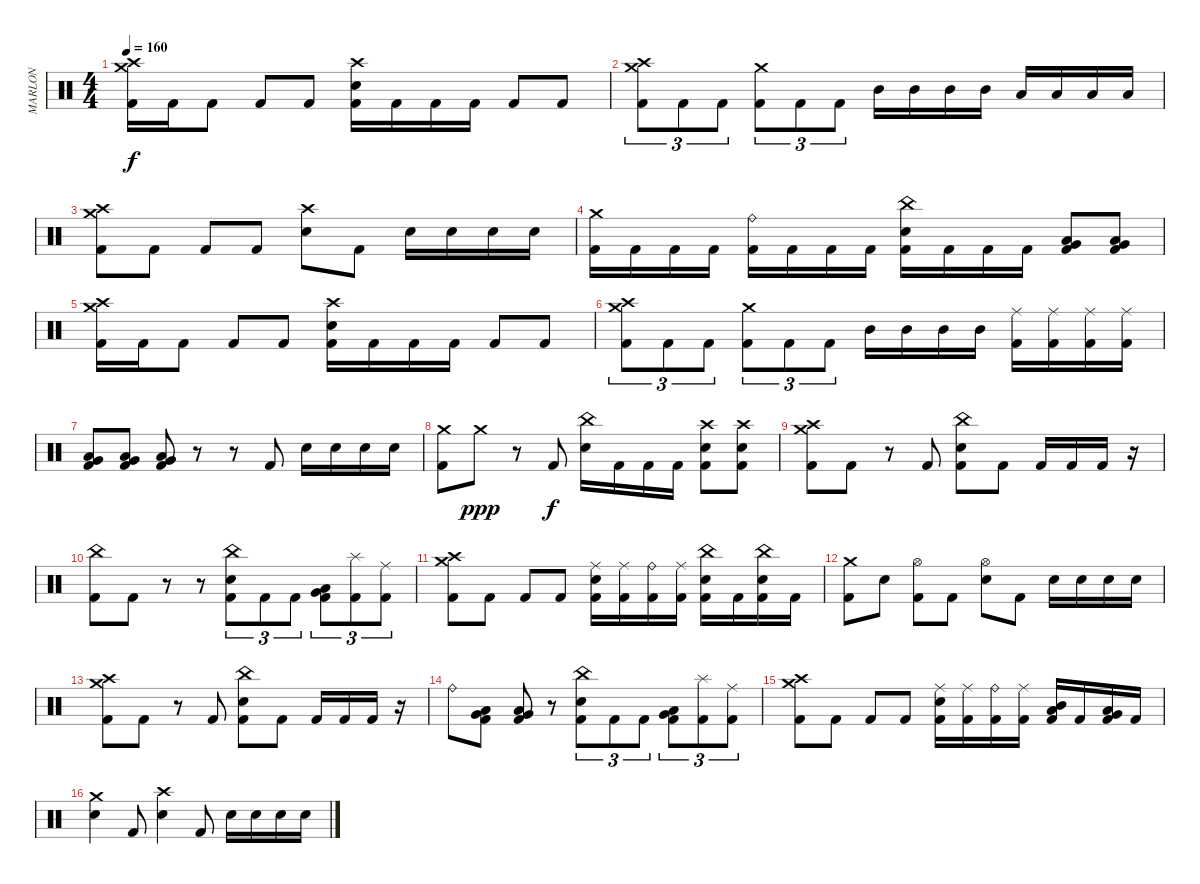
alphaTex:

\track ("MARLON" "MARLON") {instrument percussion}
\staff {score}
\articulation defaults
\ts (4 4)
\tempo 160
\clef neutral
\ks c
("Crash medium (hit)" "Crash high (hit)" "Kick (hit) 2").16{dy f} "Kick (hit) 2".16 "Kick (hit) 2".8 "Kick (hit) 2".8 "Kick (hit) 2".8 ("Crash high (hit)" "Electric Snare (hit)" "Kick (hit) 2").16 "Kick (hit) 2".16 "Kick (hit) 2".16 "Kick (hit) 2".16 "Kick (hit) 2".8 "Kick (hit) 2".8 |
("Crash medium (hit)" "Crash high (hit)" "Kick (hit) 2").8{tu (3 2)} "Kick (hit) 2".8{tu (3 2)} "Kick (hit) 2".8{tu (3 2)} ("Crash medium (hit)" "Kick (hit) 2").8{tu (3 2)} "Kick (hit) 2".8{tu (3 2)} "Kick (hit) 2".8{tu (3 2)} "Mid Tom (hit)".16 "Mid Tom (hit)".16 "Mid Tom (hit)".16 "Mid Tom (hit)".16 "Low Tom (hit)".16 "Low Tom (hit)".16 "Low Tom (hit)".16 "Low Tom (hit)".16 |
("Crash medium (hit)" "Crash high (hit)" "Kick (hit) 2").8 "Kick (hit) 2".8 "Kick (hit) 2".8 "Kick (hit) 2".8 ("Crash high (hit)" "Electric Snare (hit)").8 "Kick (hit) 2".8 "Electric Snare (hit)".16 "Electric Snare (hit)".16 "Electric Snare (hit)".16 "Electric Snare (hit)".16 |
("Crash medium (hit)" "Kick (hit) 2").16 "Kick (hit) 2".16 "Kick (hit) 2".16 "Kick (hit) 2".16 ("Ride (bell)" "Kick (hit) 2").16 "Kick (hit) 2".16 "Kick (hit) 2".16 "Kick (hit) 2".16 ("China (hit)" "Electric Snare (hit)" "Kick (hit) 2").16 "Kick (hit) 2".16 "Kick (hit) 2".16 "Kick (hit) 2".16 ("Low Tom (hit)" "Very Low Tom (hit)" "Kick (hit) 2").8 ("Low Tom (hit)" "Very Low Tom (hit)" "Kick (hit) 2").8 |
("Crash medium (hit)" "Crash high (hit)" "Kick (hit) 2").16 "Kick (hit) 2".16 "Kick (hit) 2".8 "Kick (hit) 2".8 "Kick (hit) 2".8 ("Crash high (hit)" "Electric Snare (hit)" "Kick (hit) 2").16 "Kick (hit) 2".16 "Kick (hit) 2".16 "Kick (hit) 2".16 "Kick (hit) 2".8 "Kick (hit) 2".8 |
("Crash medium (hit)" "Crash high (hit)" "Kick (hit) 2").8{tu (3 2)} "Kick (hit) 2".8{tu (3 2)} "Kick (hit) 2".8{tu (3 2)} ("Crash medium (hit)" "Kick (hit) 2").8{tu (3 2)} "Kick (hit) 2".8{tu (3 2)} "Kick (hit) 2".8{tu (3 2)} "Mid Tom (hit)".16 "Mid Tom (hit)".16 "Mid Tom (hit)".16 "Mid Tom (hit)".16 ("Ride (middle)" "Kick (hit) 2").16 ("Ride (middle)" "Kick (hit) 2").16 ("Ride (middle)" "Kick (hit) 2").16 ("Ride (middle)" "Kick (hit) 2").16 |
("Low Tom (hit)" "Very Low Tom (hit)" "Kick (hit) 2").8 ("Low Tom (hit)" "Very Low Tom (hit)" "Kick (hit) 2").8 ("Low Tom (hit)" "Very Low Tom (hit)" "Kick (hit) 2").8 r.8 r.8 "Kick (hit) 2".8 "Electric Snare (hit)".16 "Electric Snare (hit)".16 "Electric Snare (hit)".16 "Electric Snare (hit)".16 |
("Crash medium (hit)" "Kick (hit) 2").8 "Crash medium (hit)".8{dy ppp} r.8 "Kick (hit) 2".8{dy f} ("China (hit)" "Electric Snare (hit)").16 "Kick (hit) 2".16 "Kick (hit) 2".16 "Kick (hit) 2".16 ("Crash high (hit)" "Electric Snare (hit)" "Kick (hit) 2").8 ("Crash high (hit)" "Electric Snare (hit)" "Kick (hit) 2").8 |
("Crash medium (hit)" "Crash high (hit)" "Kick (hit) 2").8 "Kick (hit) 2".8 r.8 "Kick (hit) 2".8 ("China (hit)" "Electric Snare (hit)" "Kick (hit) 2").8 "Kick (hit) 2".8 "Kick (hit) 2".16 "Kick (hit) 2".16 "Kick (hit) 2".16 r.16 |
("China (hit)" "Kick (hit) 2").8 "Kick (hit) 2".8 r.8 r.8 ("China (hit)" "Electric Snare (hit)" "Kick (hit) 2").8{tu (3 2)} "Kick (hit) 2".8{tu (3 2)} "Kick (hit) 2".8{tu (3 2)} ("Very Low Tom (hit)" "Low Tom (hit)" "Kick (hit) 2").8{tu (3 2)} ("Splash (hit)" "Kick (hit) 2").8{tu (3 2)} ("Ride (middle)" "Kick (hit) 2").8{tu (3 2)} |
("Crash medium (hit)" "Crash high (hit)" "Kick (hit) 2").8 "Kick (hit) 2".8 "Kick (hit) 2".8 "Kick (hit) 2".8 ("Ride (middle)" "Electric Snare (hit)" "Kick (hit) 2").16 ("Ride (middle)" "Kick (hit) 2").16 ("Ride (bell)" "Kick (hit) 2").16 ("Ride (middle)" "Kick (hit) 2").16 ("China (hit)" "Electric Snare (hit)" "Kick (hit) 2").16 "Kick (hit) 2".16 ("China (hit)" "Electric Snare (hit)" "Kick (hit) 2").16 "Kick (hit) 2".16 |
("Crash medium (hit)" "Kick (hit) 2").8 "Electric Snare (hit)".8 ("Hi-Hat (open)" "Kick (hit) 2").8 "Kick (hit) 2".8 ("Hi-Hat (open)" "Electric Snare (hit)").8 "Kick (hit) 2".8 "Electric Snare (hit)".16 "Electric Snare (hit)".16 "Electric Snare (hit)".16 "Electric Snare (hit)".16 |
("Crash medium (hit)" "Crash high (hit)" "Kick (hit) 2").8 "Kick (hit) 2".8 r.8 "Kick (hit) 2".8 ("China (hit)" "Electric Snare (hit)" "Kick (hit) 2").8 "Kick (hit) 2".8 "Kick (hit) 2".16 "Kick (hit) 2".16 "Kick (hit) 2".16 r.16 |
"Ride (bell)".8 ("Low Tom (hit)" "Very Low Tom (hit)" "Kick (hit) 2").8 ("Low Tom (hit)" "Very Low Tom (hit)" "Kick (hit) 2").8 r.8 ("China (hit)" "Electric Snare (hit)" "Kick (hit) 2").8{tu (3 2)} "Kick (hit) 2".8{tu (3 2)} "Kick (hit) 2".8{tu (3 2)} ("Very Low Tom (hit)" "Low Tom (hit)" "Kick (hit) 2").8{tu (3 2)} ("Splash (hit)" "Kick (hit) 2").8{tu (3 2)} ("Ride (middle)" "Kick (hit) 2").8{tu (3 2)} |
("Crash medium (hit)" "Crash high (hit)" "Kick (hit) 2").8 "Kick (hit) 2".8 "Kick (hit) 2".8 "Kick (hit) 2".8 ("Ride (middle)" "Electric Snare (hit)" "Kick (hit) 2").16 ("Ride (middle)" "Kick (hit) 2").16 ("Ride (bell)" "Kick (hit) 2").16 ("Ride (middle)" "Kick (hit) 2").16 ("Mid Tom (hit)" "Low Tom (hit)" "Kick (hit) 2").16 "Kick (hit) 2".16 ("Low Tom (hit)" "Very Low Tom (hit)" "Kick (hit) 2").16 "Kick (hit) 2".16 |
("Crash medium (hit)" "Electric Snare (hit)").4 "Kick (hit) 2".8 ("Crash high (hit)" "Electric Snare (hit)").4 "Kick (hit) 2".8 "Electric Snare (hit)".16 "Electric Snare (hit)".16 "Electric Snare (hit)".16 "Electric Snare (hit)".16
